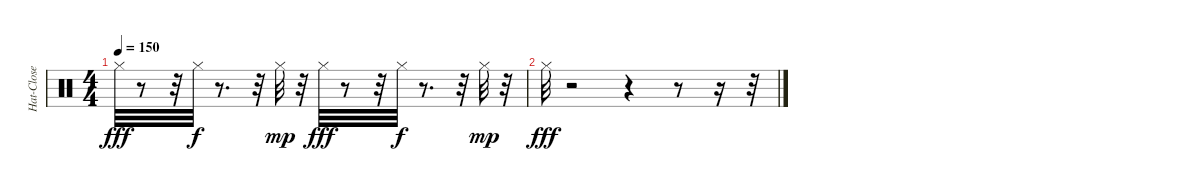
\track ("Hat-Close" "Hat-Close") {instrument percussion}
\staff {score}
\articulation defaults
\ts (4 4)
\tempo 150
\clef neutral
\ks c "Hi-Hat (closed)".32{dy fff}
r.8 r.32 "Hi-Hat (closed)".32{dy f} r.8{d} r.32 "Hi-Hat (closed)".32{dy mp} r.32 "Hi-Hat (closed)".32{dy fff} r.8 r.32 "Hi-Hat (closed)".32{dy f} r.8{d} r.32 "Hi-Hat (closed)".32{dy mp} r.32 |
"Hi-Hat (closed)".32{dy fff} r.2 r.4 r.8 r.16 r.32
